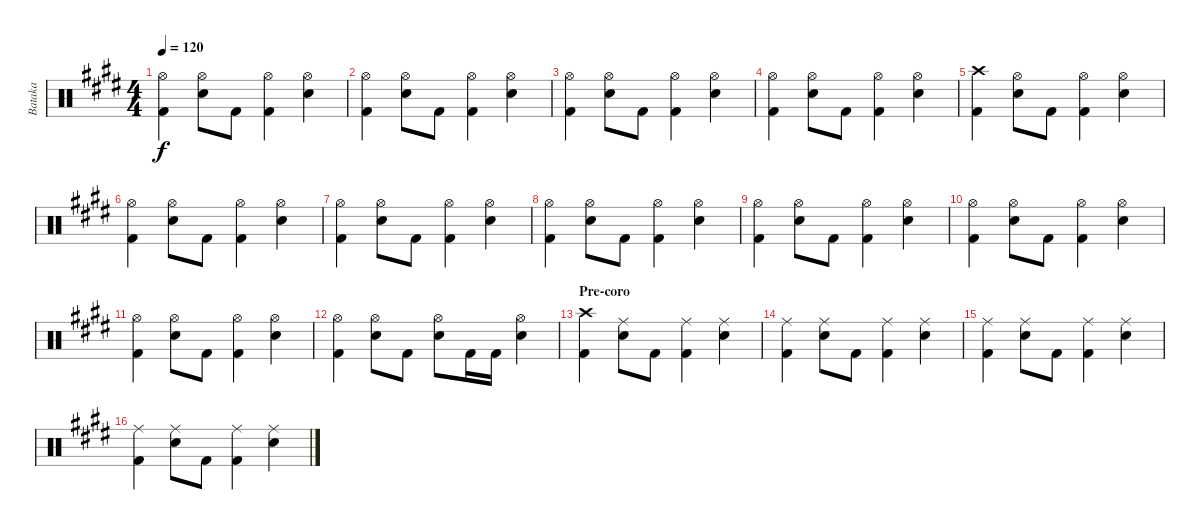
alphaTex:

\track ("Bataka" "Bataka") {instrument percussion}
\staff {score}
\articulation defaults
\ts (4 4)
\tempo 120
\clef neutral
\ks e
("Hi-Hat (open)" "Kick (hit) 2").4{dy f} ("Hi-Hat (open)" "Electric Snare (hit)").8 "Kick (hit) 2".8 ("Hi-Hat (open)" "Kick (hit) 2").4 ("Hi-Hat (open)" "Electric Snare (hit)").4 |
("Hi-Hat (open)" "Kick (hit) 2").4 ("Hi-Hat (open)" "Electric Snare (hit)").8 "Kick (hit) 2".8 ("Hi-Hat (open)" "Kick (hit) 2").4 ("Hi-Hat (open)" "Electric Snare (hit)").4 |
("Hi-Hat (open)" "Kick (hit) 2").4 ("Hi-Hat (open)" "Electric Snare (hit)").8 "Kick (hit) 2".8 ("Hi-Hat (open)" "Kick (hit) 2").4 ("Hi-Hat (open)" "Electric Snare (hit)").4 |
("Hi-Hat (open)" "Kick (hit) 2").4 ("Hi-Hat (open)" "Electric Snare (hit)").8 "Kick (hit) 2".8 ("Hi-Hat (open)" "Kick (hit) 2").4 ("Hi-Hat (open)" "Electric Snare (hit)").4 |
("Crash high (hit)" "Kick (hit) 2").4 ("Hi-Hat (open)" "Electric Snare (hit)").8 "Kick (hit) 2".8 ("Hi-Hat (open)" "Kick (hit) 2").4 ("Hi-Hat (open)" "Electric Snare (hit)").4 |
("Hi-Hat (open)" "Kick (hit) 2").4 ("Hi-Hat (open)" "Electric Snare (hit)").8 "Kick (hit) 2".8 ("Hi-Hat (open)" "Kick (hit) 2").4 ("Hi-Hat (open)" "Electric Snare (hit)").4 |
("Hi-Hat (open)" "Kick (hit) 2").4 ("Hi-Hat (open)" "Electric Snare (hit)").8 "Kick (hit) 2".8 ("Hi-Hat (open)" "Kick (hit) 2").4 ("Hi-Hat (open)" "Electric Snare (hit)").4 |
("Hi-Hat (open)" "Kick (hit) 2").4 ("Hi-Hat (open)" "Electric Snare (hit)").8 "Kick (hit) 2".8 ("Hi-Hat (open)" "Kick (hit) 2").4 ("Hi-Hat (open)" "Electric Snare (hit)").4 |
("Hi-Hat (open)" "Kick (hit) 2").4 ("Hi-Hat (open)" "Electric Snare (hit)").8 "Kick (hit) 2".8 ("Hi-Hat (open)" "Kick (hit) 2").4 ("Hi-Hat (open)" "Electric Snare (hit)").4 |
("Hi-Hat (open)" "Kick (hit) 2").4 ("Hi-Hat (open)" "Electric Snare (hit)").8 "Kick (hit) 2".8 ("Hi-Hat (open)" "Kick (hit) 2").4 ("Hi-Hat (open)" "Electric Snare (hit)").4 |
("Hi-Hat (open)" "Kick (hit) 2").4 ("Hi-Hat (open)" "Electric Snare (hit)").8 "Kick (hit) 2".8 ("Hi-Hat (open)" "Kick (hit) 2").4 ("Hi-Hat (open)" "Electric Snare (hit)").4 |
("Hi-Hat (open)" "Kick (hit) 2").4 ("Hi-Hat (open)" "Electric Snare (hit)").8 "Kick (hit) 2".8 ("Hi-Hat (open)" "Electric Snare (hit)").8 "Kick (hit) 2".16 "Kick (hit) 2".16 ("Hi-Hat (open)" "Electric Snare (hit)").4 |
\section ("" "Pre-coro")
("Crash high (hit)" "Kick (hit) 2").4 ("Ride (middle)" "Electric Snare (hit)").8 "Kick (hit) 2".8 ("Ride (middle)" "Kick (hit) 2").4 ("Ride (middle)" "Electric Snare (hit)").4 |
("Ride (middle)" "Kick (hit) 2").4 ("Ride (middle)" "Electric Snare (hit)").8 "Kick (hit) 2".8 ("Ride (middle)" "Kick (hit) 2").4 ("Ride (middle)" "Electric Snare (hit)").4 |
("Ride (middle)" "Kick (hit) 2").4 ("Ride (middle)" "Electric Snare (hit)").8 "Kick (hit) 2".8 ("Ride (middle)" "Kick (hit) 2").4 ("Ride (middle)" "Electric Snare (hit)").4 |
("Ride (middle)" "Kick (hit) 2").4 ("Ride (middle)" "Electric Snare (hit)").8 "Kick (hit) 2".8 ("Ride (middle)" "Kick (hit) 2").4 ("Ride (middle)" "Electric Snare (hit)").4
